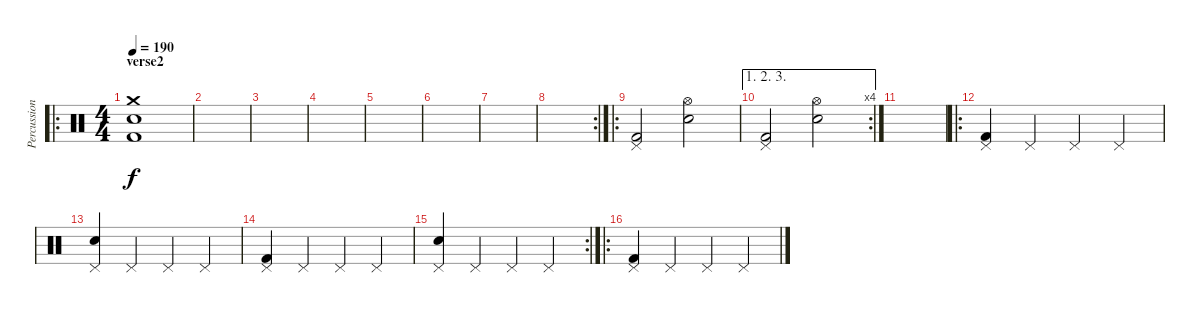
\track ("Percussions" "Percussion") {instrument percussion}
\staff {score}
\articulation defaults
\ro
\ts (4 4)
\section ("" "verse2")
\tempo 190
\clef neutral
\ks c
("Crash medium (hit)" "Snare (hit) 2" "Kick (hit) 2").1{dy f} |
|
|
|
|
|
|
\rc 2
|
\ro
("Pedal Hi-Hat (hit)" "Kick (hit) 2").2 ("Hi-Hat (open)" "Electric Snare (hit)").2 |
\ae (1 2 3)
\rc 4
("Pedal Hi-Hat (hit)" "Kick (hit) 2").2 ("Hi-Hat (open)" "Electric Snare (hit)").2 |
|
\ro
("Pedal Hi-Hat (hit)" "Kick (hit) 2").4 "Pedal Hi-Hat (hit)".4 "Pedal Hi-Hat (hit)".4 "Pedal Hi-Hat (hit)".4 |
("Pedal Hi-Hat (hit)" "Electric Snare (hit)").4 "Pedal Hi-Hat (hit)".4 "Pedal Hi-Hat (hit)".4 "Pedal Hi-Hat (hit)".4 |
("Pedal Hi-Hat (hit)" "Kick (hit) 2").4 "Pedal Hi-Hat (hit)".4 "Pedal Hi-Hat (hit)".4 "Pedal Hi-Hat (hit)".4 |
\rc 2
("Pedal Hi-Hat (hit)" "Electric Snare (hit)").4 "Pedal Hi-Hat (hit)".4 "Pedal Hi-Hat (hit)".4 "Pedal Hi-Hat (hit)".4 |
\ro
("Pedal Hi-Hat (hit)" "Kick (hit) 2").4 "Pedal Hi-Hat (hit)".4 "Pedal Hi-Hat (hit)".4 "Pedal Hi-Hat (hit)".4
